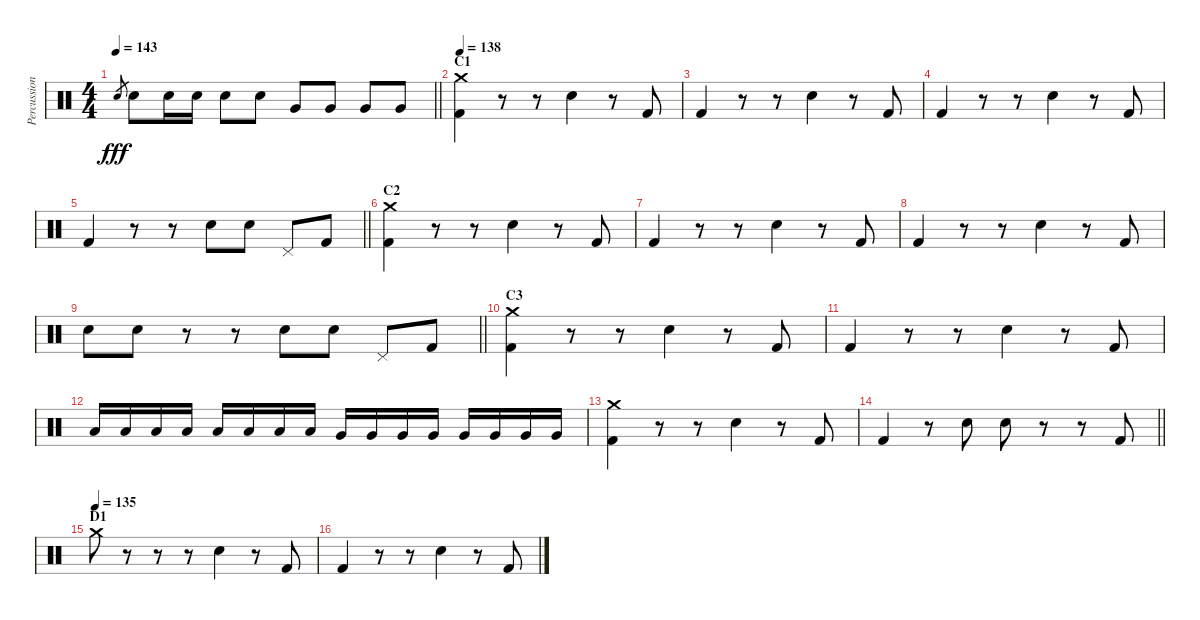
\track ("Percussion" "Percussion") {instrument percussion}
\staff {score}
\articulation defaults
\ts (4 4)
\tempo 143
\clef neutral
\barLineRight lightlight
\ks c "Electric Snare (hit)".8{gr dy fff} "Electric Snare (hit)".8 "Electric Snare (hit)".16 "Electric Snare (hit)".16 "Electric Snare (hit)".8 "Electric Snare (hit)".8 "Very Low Tom (hit)".8 "Very Low Tom (hit)".8 "Very Low Tom (hit)".8 "Very Low Tom (hit)".8
|
\section ("" "C1")
\tempo 138
("Kick (hit) 2" "Crash medium (hit)").4 r.8 r.8 "Electric Snare (hit)".4 r.8 "Kick (hit) 2".8 |
"Kick (hit) 2".4 r.8 r.8 "Electric Snare (hit)".4 r.8 "Kick (hit) 2".8 |
"Kick (hit) 2".4 r.8 r.8 "Electric Snare (hit)".4 r.8 "Kick (hit) 2".8 |
\barLineRight lightlight "Kick (hit) 2".4
r.8 r.8 "Electric Snare (hit)".8 "Electric Snare (hit)".8 "Pedal Hi-Hat (hit)".8 "Kick (hit) 2".8 |
\section ("" "C2")
("Kick (hit) 2" "Crash medium (hit)").4 r.8 r.8 "Electric Snare (hit)".4 r.8 "Kick (hit) 2".8 |
"Kick (hit) 2".4 r.8 r.8 "Electric Snare (hit)".4 r.8 "Kick (hit) 2".8 |
"Kick (hit) 2".4 r.8 r.8 "Electric Snare (hit)".4 r.8 "Kick (hit) 2".8 |
\barLineRight lightlight "Electric Snare (hit)".8 "Electric Snare (hit)".8
r.8 r.8 "Electric Snare (hit)".8 "Electric Snare (hit)".8 "Pedal Hi-Hat (hit)".8 "Kick (hit) 2".8 |
\section ("" "C3")
("Kick (hit) 2" "Crash medium (hit)").4 r.8 r.8 "Electric Snare (hit)".4 r.8 "Kick (hit) 2".8 |
"Kick (hit) 2".4 r.8 r.8 "Electric Snare (hit)".4 r.8 "Kick (hit) 2".8 |
"Low Tom (hit)".16 "Low Tom (hit)".16 "Low Tom (hit)".16 "Low Tom (hit)".16 "Low Tom (hit)".16 "Low Tom (hit)".16 "Low Tom (hit)".16 "Low Tom (hit)".16 "Very Low Tom (hit)".16 "Very Low Tom (hit)".16 "Very Low Tom (hit)".16 "Very Low Tom (hit)".16 "Very Low Tom (hit)".16 "Very Low Tom (hit)".16 "Very Low Tom (hit)".16 "Very Low Tom (hit)".16 |
("Kick (hit) 2" "Crash medium (hit)").4 r.8 r.8 "Electric Snare (hit)".4 r.8 "Kick (hit) 2".8 |
\barLineRight lightlight "Kick (hit) 2".4
r.8 "Electric Snare (hit)".8 "Electric Snare (hit)".8 r.8 r.8 "Kick (hit) 2".8 |
\section ("" "D1")
\tempo (135)
"Crash medium (hit)".8 r.8 r.8 r.8 "Electric Snare (hit)".4 r.8 "Kick (hit) 2".8 |
"Kick (hit) 2".4 r.8 r.8 "Electric Snare (hit)".4 r.8 "Kick (hit) 2".8
